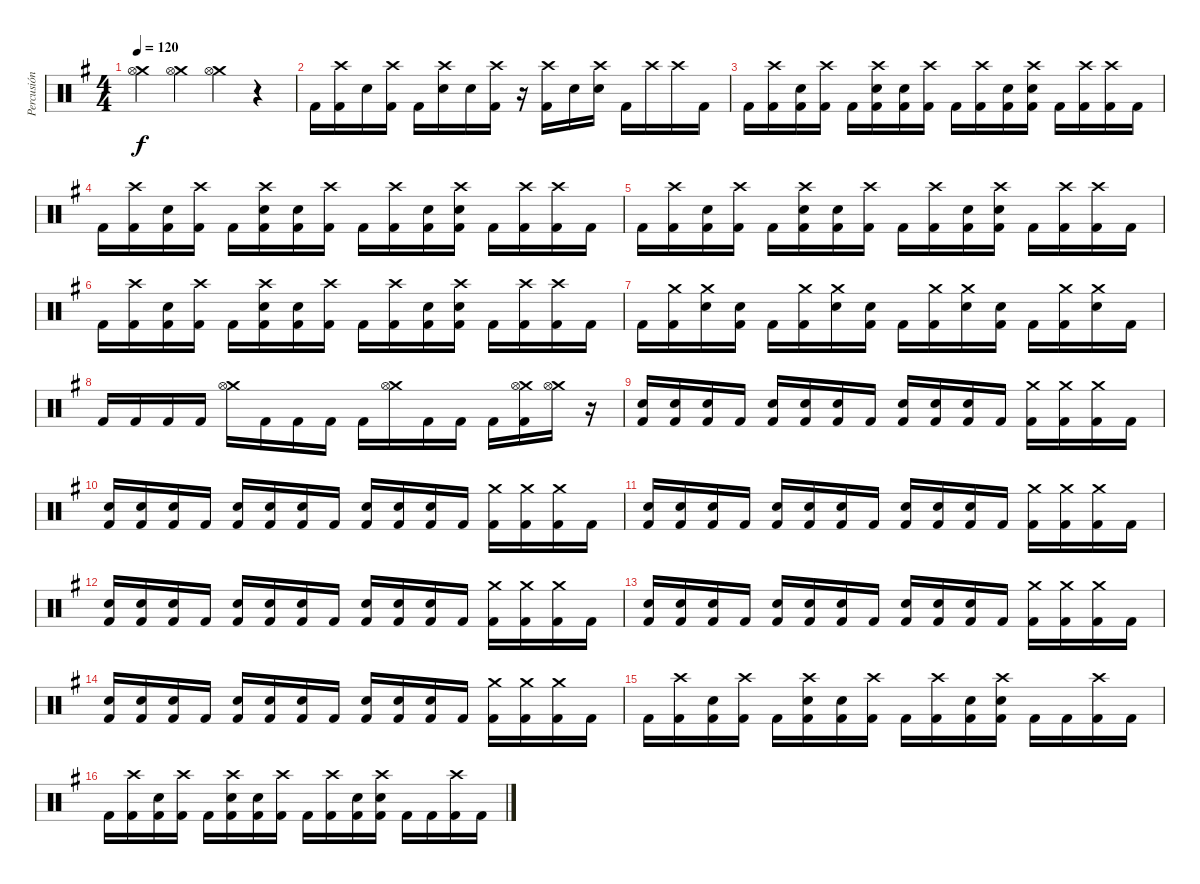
\track ("Percusión" "Percusión") {instrument percussion}
\staff {score}
\articulation defaults
\ts (4 4)
\tempo 120
\clef neutral
\ks g
("Crash medium (hit)" "Hi-Hat (open)").4{dy f} ("Crash medium (hit)" "Hi-Hat (open)").4 ("Crash medium (hit)" "Hi-Hat (open)").4 r.4 |
"Kick (hit) 2".16 ("Crash high (hit)" "Kick (hit) 2").16 "Snare (hit) 2".16 ("Crash high (hit)" "Kick (hit) 2").16 "Kick (hit) 2".16 ("Crash high (hit)" "Snare (hit) 2").16 "Snare (hit) 2".16 ("Crash high (hit)" "Kick (hit) 2").16 r.16 ("Crash high (hit)" "Kick (hit) 2").16 "Snare (hit) 2".16 ("Crash high (hit)" "Snare (hit) 2").16 "Kick (hit) 2".16 "Crash high (hit)".16 "Crash high (hit)".16 "Kick (hit) 2".16 |
"Kick (hit) 2".16 ("Crash high (hit)" "Kick (hit) 2").16 ("Snare (hit) 2" "Kick (hit) 2").16 ("Crash high (hit)" "Kick (hit) 2").16 "Kick (hit) 2".16 ("Crash high (hit)" "Snare (hit) 2" "Kick (hit) 2").16 ("Snare (hit) 2" "Kick (hit) 2").16 ("Crash high (hit)" "Kick (hit) 2").16 "Kick (hit) 2".16 ("Crash high (hit)" "Kick (hit) 2").16 ("Snare (hit) 2" "Kick (hit) 2").16 ("Crash high (hit)" "Snare (hit) 2" "Kick (hit) 2").16 "Kick (hit) 2".16 ("Crash high (hit)" "Kick (hit) 2").16 ("Crash high (hit)" "Kick (hit) 2").16 "Kick (hit) 2".16 |
"Kick (hit) 2".16 ("Crash high (hit)" "Kick (hit) 2").16 ("Snare (hit) 2" "Kick (hit) 2").16 ("Crash high (hit)" "Kick (hit) 2").16 "Kick (hit) 2".16 ("Crash high (hit)" "Snare (hit) 2" "Kick (hit) 2").16 ("Snare (hit) 2" "Kick (hit) 2").16 ("Crash high (hit)" "Kick (hit) 2").16 "Kick (hit) 2".16 ("Crash high (hit)" "Kick (hit) 2").16 ("Snare (hit) 2" "Kick (hit) 2").16 ("Crash high (hit)" "Snare (hit) 2" "Kick (hit) 2").16 "Kick (hit) 2".16 ("Crash high (hit)" "Kick (hit) 2").16 ("Crash high (hit)" "Kick (hit) 2").16 "Kick (hit) 2".16 |
"Kick (hit) 2".16 ("Crash high (hit)" "Kick (hit) 2").16 ("Snare (hit) 2" "Kick (hit) 2").16 ("Crash high (hit)" "Kick (hit) 2").16 "Kick (hit) 2".16 ("Crash high (hit)" "Snare (hit) 2" "Kick (hit) 2").16 ("Snare (hit) 2" "Kick (hit) 2").16 ("Crash high (hit)" "Kick (hit) 2").16 "Kick (hit) 2".16 ("Crash high (hit)" "Kick (hit) 2").16 ("Snare (hit) 2" "Kick (hit) 2").16 ("Crash high (hit)" "Snare (hit) 2" "Kick (hit) 2").16 "Kick (hit) 2".16 ("Crash high (hit)" "Kick (hit) 2").16 ("Crash high (hit)" "Kick (hit) 2").16 "Kick (hit) 2".16 |
"Kick (hit) 2".16 ("Crash high (hit)" "Kick (hit) 2").16 ("Snare (hit) 2" "Kick (hit) 2").16 ("Crash high (hit)" "Kick (hit) 2").16 "Kick (hit) 2".16 ("Crash high (hit)" "Snare (hit) 2" "Kick (hit) 2").16 ("Snare (hit) 2" "Kick (hit) 2").16 ("Crash high (hit)" "Kick (hit) 2").16 "Kick (hit) 2".16 ("Crash high (hit)" "Kick (hit) 2").16 ("Snare (hit) 2" "Kick (hit) 2").16 ("Crash high (hit)" "Snare (hit) 2" "Kick (hit) 2").16 "Kick (hit) 2".16 ("Crash high (hit)" "Kick (hit) 2").16 ("Crash high (hit)" "Kick (hit) 2").16 "Kick (hit) 2".16 |
"Kick (hit) 2".16 ("Crash medium (hit)" "Kick (hit) 2").16 ("Crash medium (hit)" "Electric Snare (hit)").16 ("Electric Snare (hit)" "Kick (hit) 2").16 "Kick (hit) 2".16 ("Crash medium (hit)" "Kick (hit) 2").16 ("Crash medium (hit)" "Electric Snare (hit)").16 ("Electric Snare (hit)" "Kick (hit) 2").16 "Kick (hit) 2".16 ("Crash medium (hit)" "Kick (hit) 2").16 ("Crash medium (hit)" "Electric Snare (hit)").16 ("Electric Snare (hit)" "Kick (hit) 2").16 "Kick (hit) 2".16 ("Crash medium (hit)" "Kick (hit) 2").16 ("Crash medium (hit)" "Electric Snare (hit)").16 "Kick (hit) 2".16 |
"Kick (hit) 2".16 "Kick (hit) 2".16 "Kick (hit) 2".16 "Kick (hit) 2".16 ("Crash medium (hit)" "Hi-Hat (open)").16 "Kick (hit) 2".16 "Kick (hit) 2".16 "Kick (hit) 2".16 "Kick (hit) 2".16 ("Crash medium (hit)" "Hi-Hat (open)").16 "Kick (hit) 2".16 "Kick (hit) 2".16 "Kick (hit) 2".16 ("Crash medium (hit)" "Hi-Hat (open)" "Kick (hit) 2").16 ("Crash medium (hit)" "Hi-Hat (open)").16 r.16 |
("Snare (hit) 2" "Kick (hit) 2").16 ("Snare (hit) 2" "Kick (hit) 2").16 ("Snare (hit) 2" "Kick (hit) 2").16 "Kick (hit) 2".16 ("Snare (hit) 2" "Kick (hit) 2").16 ("Snare (hit) 2" "Kick (hit) 2").16 ("Snare (hit) 2" "Kick (hit) 2").16 "Kick (hit) 2".16 ("Snare (hit) 2" "Kick (hit) 2").16 ("Snare (hit) 2" "Kick (hit) 2").16 ("Snare (hit) 2" "Kick (hit) 2").16 "Kick (hit) 2".16 ("Crash medium (hit)" "Kick (hit) 2").16 ("Crash medium (hit)" "Kick (hit) 2").16 ("Crash medium (hit)" "Kick (hit) 2").16 "Kick (hit) 2".16 |
("Snare (hit) 2" "Kick (hit) 2").16 ("Snare (hit) 2" "Kick (hit) 2").16 ("Snare (hit) 2" "Kick (hit) 2").16 "Kick (hit) 2".16 ("Snare (hit) 2" "Kick (hit) 2").16 ("Snare (hit) 2" "Kick (hit) 2").16 ("Snare (hit) 2" "Kick (hit) 2").16 "Kick (hit) 2".16 ("Snare (hit) 2" "Kick (hit) 2").16 ("Snare (hit) 2" "Kick (hit) 2").16 ("Snare (hit) 2" "Kick (hit) 2").16 "Kick (hit) 2".16 ("Crash medium (hit)" "Kick (hit) 2").16 ("Crash medium (hit)" "Kick (hit) 2").16 ("Crash medium (hit)" "Kick (hit) 2").16 "Kick (hit) 2".16 |
("Snare (hit) 2" "Kick (hit) 2").16 ("Snare (hit) 2" "Kick (hit) 2").16 ("Snare (hit) 2" "Kick (hit) 2").16 "Kick (hit) 2".16 ("Snare (hit) 2" "Kick (hit) 2").16 ("Snare (hit) 2" "Kick (hit) 2").16 ("Snare (hit) 2" "Kick (hit) 2").16 "Kick (hit) 2".16 ("Snare (hit) 2" "Kick (hit) 2").16 ("Snare (hit) 2" "Kick (hit) 2").16 ("Snare (hit) 2" "Kick (hit) 2").16 "Kick (hit) 2".16 ("Crash medium (hit)" "Kick (hit) 2").16 ("Crash medium (hit)" "Kick (hit) 2").16 ("Crash medium (hit)" "Kick (hit) 2").16 "Kick (hit) 2".16 |
("Snare (hit) 2" "Kick (hit) 2").16 ("Snare (hit) 2" "Kick (hit) 2").16 ("Snare (hit) 2" "Kick (hit) 2").16 "Kick (hit) 2".16 ("Snare (hit) 2" "Kick (hit) 2").16 ("Snare (hit) 2" "Kick (hit) 2").16 ("Snare (hit) 2" "Kick (hit) 2").16 "Kick (hit) 2".16 ("Snare (hit) 2" "Kick (hit) 2").16 ("Snare (hit) 2" "Kick (hit) 2").16 ("Snare (hit) 2" "Kick (hit) 2").16 "Kick (hit) 2".16 ("Crash medium (hit)" "Kick (hit) 2").16 ("Crash medium (hit)" "Kick (hit) 2").16 ("Crash medium (hit)" "Kick (hit) 2").16 "Kick (hit) 2".16 |
("Snare (hit) 2" "Kick (hit) 2").16 ("Snare (hit) 2" "Kick (hit) 2").16 ("Snare (hit) 2" "Kick (hit) 2").16 "Kick (hit) 2".16 ("Snare (hit) 2" "Kick (hit) 2").16 ("Snare (hit) 2" "Kick (hit) 2").16 ("Snare (hit) 2" "Kick (hit) 2").16 "Kick (hit) 2".16 ("Snare (hit) 2" "Kick (hit) 2").16 ("Snare (hit) 2" "Kick (hit) 2").16 ("Snare (hit) 2" "Kick (hit) 2").16 "Kick (hit) 2".16 ("Crash medium (hit)" "Kick (hit) 2").16 ("Crash medium (hit)" "Kick (hit) 2").16 ("Crash medium (hit)" "Kick (hit) 2").16 "Kick (hit) 2".16 |
("Snare (hit) 2" "Kick (hit) 2").16 ("Snare (hit) 2" "Kick (hit) 2").16 ("Snare (hit) 2" "Kick (hit) 2").16 "Kick (hit) 2".16 ("Snare (hit) 2" "Kick (hit) 2").16 ("Snare (hit) 2" "Kick (hit) 2").16 ("Snare (hit) 2" "Kick (hit) 2").16 "Kick (hit) 2".16 ("Snare (hit) 2" "Kick (hit) 2").16 ("Snare (hit) 2" "Kick (hit) 2").16 ("Snare (hit) 2" "Kick (hit) 2").16 "Kick (hit) 2".16 ("Crash medium (hit)" "Kick (hit) 2").16 ("Crash medium (hit)" "Kick (hit) 2").16 ("Crash medium (hit)" "Kick (hit) 2").16 "Kick (hit) 2".16 |
"Kick (hit) 2".16 ("Crash high (hit)" "Kick (hit) 2").16 ("Snare (hit) 2" "Kick (hit) 2").16 ("Crash high (hit)" "Kick (hit) 2").16 "Kick (hit) 2".16 ("Crash high (hit)" "Snare (hit) 2" "Kick (hit) 2").16 ("Snare (hit) 2" "Kick (hit) 2").16 ("Crash high (hit)" "Kick (hit) 2").16 "Kick (hit) 2".16 ("Crash high (hit)" "Kick (hit) 2").16 ("Snare (hit) 2" "Kick (hit) 2").16 ("Crash high (hit)" "Snare (hit) 2" "Kick (hit) 2").16 "Kick (hit) 2".16 "Kick (hit) 2".16 ("Crash high (hit)" "Kick (hit) 2").16 "Kick (hit) 2".16 |
"Kick (hit) 2".16 ("Crash high (hit)" "Kick (hit) 2").16 ("Snare (hit) 2" "Kick (hit) 2").16 ("Crash high (hit)" "Kick (hit) 2").16 "Kick (hit) 2".16 ("Crash high (hit)" "Snare (hit) 2" "Kick (hit) 2").16 ("Snare (hit) 2" "Kick (hit) 2").16 ("Crash high (hit)" "Kick (hit) 2").16 "Kick (hit) 2".16 ("Crash high (hit)" "Kick (hit) 2").16 ("Snare (hit) 2" "Kick (hit) 2").16 ("Crash high (hit)" "Snare (hit) 2" "Kick (hit) 2").16 "Kick (hit) 2".16 "Kick (hit) 2".16 ("Crash high (hit)" "Kick (hit) 2").16 "Kick (hit) 2".16
